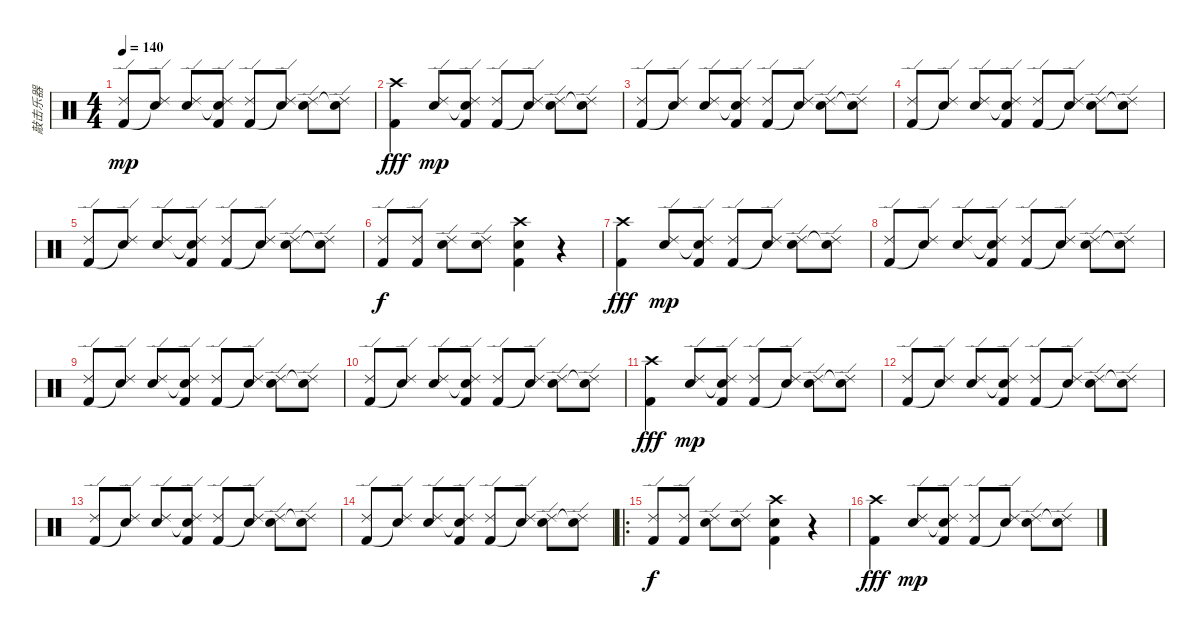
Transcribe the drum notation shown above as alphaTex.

\track ("敲击乐器" "敲击乐器") {instrument percussion}
\staff {score}
\articulation defaults
\ts (4 4)
\tempo 140
\clef neutral
\ks c
("Kick (hit) 2" "Ride (edge) 2").8{dy mp} ("Snare (hit)"{t} "Ride (edge) 2").8 ("Electric Snare (hit)" "Ride (edge) 2").8 ("Snare (hit)"{t} "Kick (hit) 2" "Ride (edge) 2").8 ("Kick (hit) 2" "Ride (edge) 2").8 ("Snare (hit)"{t} "Ride (edge) 2").8 ("Electric Snare (hit)" "Ride (edge) 2").8 ("Snare (hit)"{t} "Ride (edge) 2").8 |
("Kick (hit) 2" "Crash high (hit)").4{dy fff} ("Electric Snare (hit)" "Ride (edge) 2").8{dy mp} ("Snare (hit)"{t} "Kick (hit) 2" "Ride (edge) 2").8 ("Kick (hit) 2" "Ride (edge) 2").8 ("Snare (hit)"{t} "Ride (edge) 2").8 ("Electric Snare (hit)" "Ride (edge) 2").8 ("Snare (hit)"{t} "Ride (edge) 2").8 |
("Kick (hit) 2" "Ride (edge) 2").8 ("Snare (hit)"{t} "Ride (edge) 2").8 ("Electric Snare (hit)" "Ride (edge) 2").8 ("Snare (hit)"{t} "Kick (hit) 2" "Ride (edge) 2").8 ("Kick (hit) 2" "Ride (edge) 2").8 ("Snare (hit)"{t} "Ride (edge) 2").8 ("Electric Snare (hit)" "Ride (edge) 2").8 ("Snare (hit)"{t} "Ride (edge) 2").8 |
("Kick (hit) 2" "Ride (edge) 2").8 ("Snare (hit)"{t} "Ride (edge) 2").8 ("Electric Snare (hit)" "Ride (edge) 2").8 ("Snare (hit)"{t} "Kick (hit) 2" "Ride (edge) 2").8 ("Kick (hit) 2" "Ride (edge) 2").8 ("Snare (hit)"{t} "Ride (edge) 2").8 ("Electric Snare (hit)" "Ride (edge) 2").8 ("Snare (hit)"{t} "Ride (edge) 2").8 |
("Kick (hit) 2" "Ride (edge) 2").8 ("Snare (hit)"{t} "Ride (edge) 2").8 ("Electric Snare (hit)" "Ride (edge) 2").8 ("Snare (hit)"{t} "Kick (hit) 2" "Ride (edge) 2").8 ("Kick (hit) 2" "Ride (edge) 2").8 ("Snare (hit)"{t} "Ride (edge) 2").8 ("Electric Snare (hit)" "Ride (edge) 2").8 ("Snare (hit)"{t} "Ride (edge) 2").8 |
("Kick (hit) 2" "Ride (edge) 2").8{dy f} ("Kick (hit) 2" "Ride (edge) 2").8 ("Snare (hit) 2" "Ride (edge) 2").8 ("Snare (hit) 2" "Ride (edge) 2").8 ("Crash high (hit)" "Snare (hit) 2" "Kick (hit) 2").4 r.4 |
("Kick (hit) 2" "Crash high (hit)").4{dy fff} ("Electric Snare (hit)" "Ride (edge) 2").8{dy mp} ("Snare (hit)"{t} "Kick (hit) 2" "Ride (edge) 2").8 ("Kick (hit) 2" "Ride (edge) 2").8 ("Snare (hit)"{t} "Ride (edge) 2").8 ("Electric Snare (hit)" "Ride (edge) 2").8 ("Snare (hit)"{t} "Ride (edge) 2").8 |
("Kick (hit) 2" "Ride (edge) 2").8 ("Snare (hit)"{t} "Ride (edge) 2").8 ("Electric Snare (hit)" "Ride (edge) 2").8 ("Snare (hit)"{t} "Kick (hit) 2" "Ride (edge) 2").8 ("Kick (hit) 2" "Ride (edge) 2").8 ("Snare (hit)"{t} "Ride (edge) 2").8 ("Electric Snare (hit)" "Ride (edge) 2").8 ("Snare (hit)"{t} "Ride (edge) 2").8 |
("Kick (hit) 2" "Ride (edge) 2").8 ("Snare (hit)"{t} "Ride (edge) 2").8 ("Electric Snare (hit)" "Ride (edge) 2").8 ("Snare (hit)"{t} "Kick (hit) 2" "Ride (edge) 2").8 ("Kick (hit) 2" "Ride (edge) 2").8 ("Snare (hit)"{t} "Ride (edge) 2").8 ("Electric Snare (hit)" "Ride (edge) 2").8 ("Snare (hit)"{t} "Ride (edge) 2").8 |
("Kick (hit) 2" "Ride (edge) 2").8 ("Snare (hit)"{t} "Ride (edge) 2").8 ("Electric Snare (hit)" "Ride (edge) 2").8 ("Snare (hit)"{t} "Kick (hit) 2" "Ride (edge) 2").8 ("Kick (hit) 2" "Ride (edge) 2").8 ("Snare (hit)"{t} "Ride (edge) 2").8 ("Electric Snare (hit)" "Ride (edge) 2").8 ("Snare (hit)"{t} "Ride (edge) 2").8 |
("Kick (hit) 2" "Crash high (hit)").4{dy fff} ("Electric Snare (hit)" "Ride (edge) 2").8{dy mp} ("Snare (hit)"{t} "Kick (hit) 2" "Ride (edge) 2").8 ("Kick (hit) 2" "Ride (edge) 2").8 ("Snare (hit)"{t} "Ride (edge) 2").8 ("Electric Snare (hit)" "Ride (edge) 2").8 ("Snare (hit)"{t} "Ride (edge) 2").8 |
("Kick (hit) 2" "Ride (edge) 2").8 ("Snare (hit)"{t} "Ride (edge) 2").8 ("Electric Snare (hit)" "Ride (edge) 2").8 ("Snare (hit)"{t} "Kick (hit) 2" "Ride (edge) 2").8 ("Kick (hit) 2" "Ride (edge) 2").8 ("Snare (hit)"{t} "Ride (edge) 2").8 ("Electric Snare (hit)" "Ride (edge) 2").8 ("Snare (hit)"{t} "Ride (edge) 2").8 |
("Kick (hit) 2" "Ride (edge) 2").8 ("Snare (hit)"{t} "Ride (edge) 2").8 ("Electric Snare (hit)" "Ride (edge) 2").8 ("Snare (hit)"{t} "Kick (hit) 2" "Ride (edge) 2").8 ("Kick (hit) 2" "Ride (edge) 2").8 ("Snare (hit)"{t} "Ride (edge) 2").8 ("Electric Snare (hit)" "Ride (edge) 2").8 ("Snare (hit)"{t} "Ride (edge) 2").8 |
("Kick (hit) 2" "Ride (edge) 2").8 ("Snare (hit)"{t} "Ride (edge) 2").8 ("Electric Snare (hit)" "Ride (edge) 2").8 ("Snare (hit)"{t} "Kick (hit) 2" "Ride (edge) 2").8 ("Kick (hit) 2" "Ride (edge) 2").8 ("Snare (hit)"{t} "Ride (edge) 2").8 ("Electric Snare (hit)" "Ride (edge) 2").8 ("Snare (hit)"{t} "Ride (edge) 2").8 |
\ro
("Kick (hit) 2" "Ride (edge) 2").8{dy f} ("Kick (hit) 2" "Ride (edge) 2").8 ("Snare (hit) 2" "Ride (edge) 2").8 ("Snare (hit) 2" "Ride (edge) 2").8 ("Crash high (hit)" "Snare (hit) 2" "Kick (hit) 2").4 r.4 |
("Kick (hit) 2" "Crash high (hit)").4{dy fff} ("Electric Snare (hit)" "Ride (edge) 2").8{dy mp} ("Snare (hit)"{t} "Kick (hit) 2" "Ride (edge) 2").8 ("Kick (hit) 2" "Ride (edge) 2").8 ("Snare (hit)"{t} "Ride (edge) 2").8 ("Electric Snare (hit)" "Ride (edge) 2").8 ("Snare (hit)"{t} "Ride (edge) 2").8
